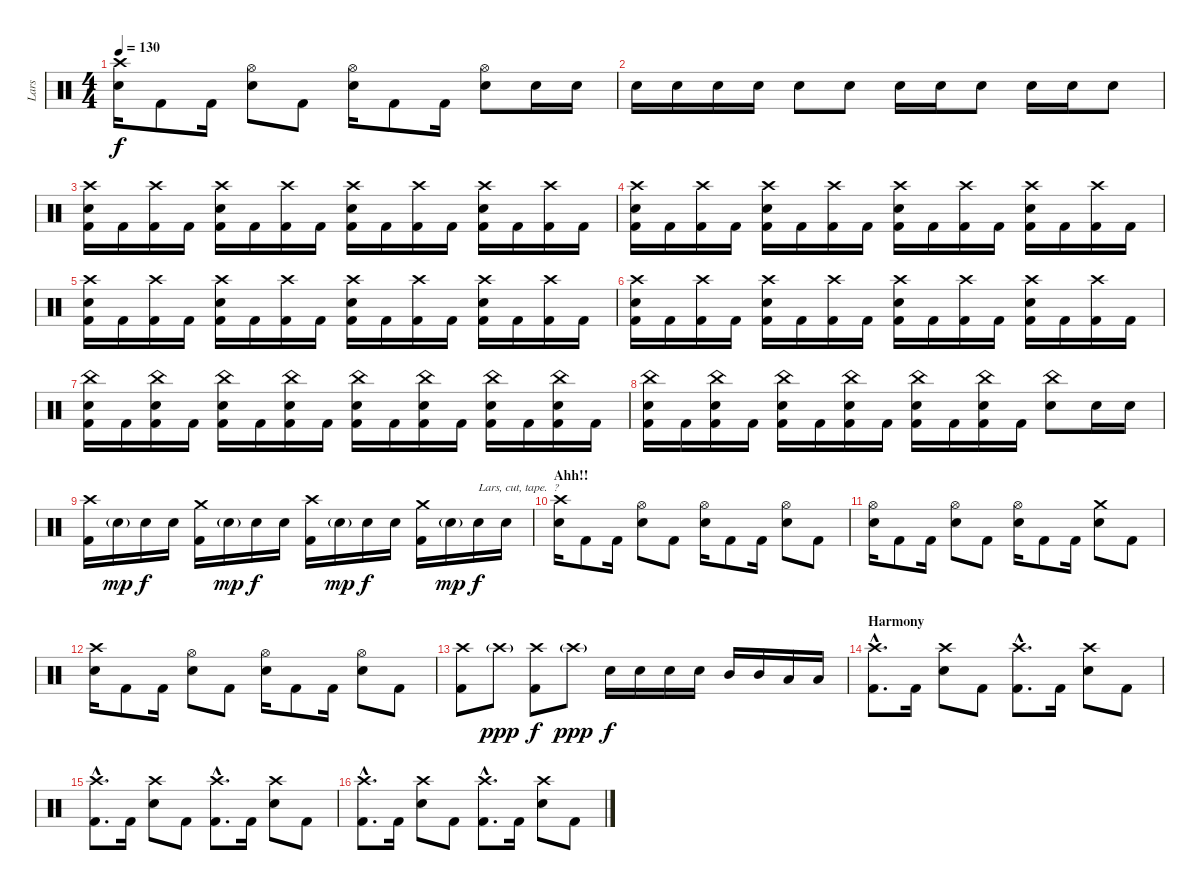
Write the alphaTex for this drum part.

\track ("Lars" "Lars") {instrument percussion}
\staff {score}
\articulation defaults
\ts (4 4)
\tempo 130
\clef neutral
\ks c
("Electric Snare (hit)" "Crash high (hit)").16{dy f} "Kick (hit) 2".8 "Kick (hit) 2".16 ("Electric Snare (hit)" "Hi-Hat (open)").8 "Kick (hit) 2".8 ("Electric Snare (hit)" "Hi-Hat (open)").16 "Kick (hit) 2".8 "Kick (hit) 2".16 ("Electric Snare (hit)" "Hi-Hat (open)").8 "Electric Snare (hit)".16 "Electric Snare (hit)".16 |
"Electric Snare (hit)".16 "Electric Snare (hit)".16 "Electric Snare (hit)".16 "Electric Snare (hit)".16 "Electric Snare (hit)".8 "Electric Snare (hit)".8 "Electric Snare (hit)".16 "Electric Snare (hit)".16 "Electric Snare (hit)".8 "Electric Snare (hit)".16 "Electric Snare (hit)".16 "Electric Snare (hit)".8 |
("Kick (hit) 2" "Electric Snare (hit)" "Crash high (hit)").16 "Kick (hit) 2".16 ("Kick (hit) 2" "Crash high (hit)").16 "Kick (hit) 2".16 ("Kick (hit) 2" "Electric Snare (hit)" "Crash high (hit)").16 "Kick (hit) 2".16 ("Kick (hit) 2" "Crash high (hit)").16 "Kick (hit) 2".16 ("Kick (hit) 2" "Electric Snare (hit)" "Crash high (hit)").16 "Kick (hit) 2".16 ("Kick (hit) 2" "Crash high (hit)").16 "Kick (hit) 2".16 ("Kick (hit) 2" "Electric Snare (hit)" "Crash high (hit)").16 "Kick (hit) 2".16 ("Kick (hit) 2" "Crash high (hit)").16 "Kick (hit) 2".16 |
("Kick (hit) 2" "Electric Snare (hit)" "Crash high (hit)").16 "Kick (hit) 2".16 ("Kick (hit) 2" "Crash high (hit)").16 "Kick (hit) 2".16 ("Kick (hit) 2" "Electric Snare (hit)" "Crash high (hit)").16 "Kick (hit) 2".16 ("Kick (hit) 2" "Crash high (hit)").16 "Kick (hit) 2".16 ("Kick (hit) 2" "Electric Snare (hit)" "Crash high (hit)").16 "Kick (hit) 2".16 ("Kick (hit) 2" "Crash high (hit)").16 "Kick (hit) 2".16 ("Kick (hit) 2" "Electric Snare (hit)" "Crash high (hit)").16 "Kick (hit) 2".16 ("Kick (hit) 2" "Crash high (hit)").16 "Kick (hit) 2".16 |
("Kick (hit) 2" "Electric Snare (hit)" "Crash high (hit)").16 "Kick (hit) 2".16 ("Kick (hit) 2" "Crash high (hit)").16 "Kick (hit) 2".16 ("Kick (hit) 2" "Electric Snare (hit)" "Crash high (hit)").16 "Kick (hit) 2".16 ("Kick (hit) 2" "Crash high (hit)").16 "Kick (hit) 2".16 ("Kick (hit) 2" "Electric Snare (hit)" "Crash high (hit)").16 "Kick (hit) 2".16 ("Kick (hit) 2" "Crash high (hit)").16 "Kick (hit) 2".16 ("Kick (hit) 2" "Electric Snare (hit)" "Crash high (hit)").16 "Kick (hit) 2".16 ("Kick (hit) 2" "Crash high (hit)").16 "Kick (hit) 2".16 |
("Kick (hit) 2" "Electric Snare (hit)" "Crash high (hit)").16 "Kick (hit) 2".16 ("Kick (hit) 2" "Crash high (hit)").16 "Kick (hit) 2".16 ("Kick (hit) 2" "Electric Snare (hit)" "Crash high (hit)").16 "Kick (hit) 2".16 ("Kick (hit) 2" "Crash high (hit)").16 "Kick (hit) 2".16 ("Kick (hit) 2" "Electric Snare (hit)" "Crash high (hit)").16 "Kick (hit) 2".16 ("Kick (hit) 2" "Crash high (hit)").16 "Kick (hit) 2".16 ("Kick (hit) 2" "Electric Snare (hit)" "Crash high (hit)").16 "Kick (hit) 2".16 ("Kick (hit) 2" "Crash high (hit)").16 "Kick (hit) 2".16 |
("Kick (hit) 2" "Electric Snare (hit)" "China (hit)").16 "Kick (hit) 2".16 ("Kick (hit) 2" "Electric Snare (hit)" "China (hit)").16 "Kick (hit) 2".16 ("Kick (hit) 2" "Electric Snare (hit)" "China (hit)").16 "Kick (hit) 2".16 ("Kick (hit) 2" "Electric Snare (hit)" "China (hit)").16 "Kick (hit) 2".16 ("Kick (hit) 2" "Electric Snare (hit)" "China (hit)").16 "Kick (hit) 2".16 ("Kick (hit) 2" "Electric Snare (hit)" "China (hit)").16 "Kick (hit) 2".16 ("Kick (hit) 2" "Electric Snare (hit)" "China (hit)").16 "Kick (hit) 2".16 ("Kick (hit) 2" "Electric Snare (hit)" "China (hit)").16 "Kick (hit) 2".16 |
("Kick (hit) 2" "Electric Snare (hit)" "China (hit)").16 "Kick (hit) 2".16 ("Kick (hit) 2" "Electric Snare (hit)" "China (hit)").16 "Kick (hit) 2".16 ("Kick (hit) 2" "Electric Snare (hit)" "China (hit)").16 "Kick (hit) 2".16 ("Kick (hit) 2" "Electric Snare (hit)" "China (hit)").16 "Kick (hit) 2".16 ("Kick (hit) 2" "Electric Snare (hit)" "China (hit)").16 "Kick (hit) 2".16 ("Kick (hit) 2" "Electric Snare (hit)" "China (hit)").16 "Kick (hit) 2".16 ("Electric Snare (hit)" "China (hit)").8 "Electric Snare (hit)".16 "Electric Snare (hit)".16 |
("Kick (hit) 2" "Crash high (hit)").16 "Electric Snare (hit)"{g}.16{dy mp} "Electric Snare (hit)".16{dy f} "Electric Snare (hit)".16 ("Kick (hit) 2" "Crash medium (hit)").16 "Electric Snare (hit)"{g}.16{dy mp} "Electric Snare (hit)".16{dy f} "Electric Snare (hit)".16 ("Kick (hit) 2" "Crash high (hit)").16 "Electric Snare (hit)"{g}.16{dy mp} "Electric Snare (hit)".16{dy f} "Electric Snare (hit)".16 ("Kick (hit) 2" "Crash medium (hit)").16 "Electric Snare (hit)"{g}.16{dy mp} "Electric Snare (hit)".16{txt "Lars, cut, tape.  ?" dy f} "Electric Snare (hit)".16 |
\section ("" "Ahh!!")
("Electric Snare (hit)" "Crash high (hit)").16 "Kick (hit) 2".8 "Kick (hit) 2".16 ("Electric Snare (hit)" "Hi-Hat (open)").8 "Kick (hit) 2".8 ("Electric Snare (hit)" "Hi-Hat (open)").16 "Kick (hit) 2".8 "Kick (hit) 2".16 ("Electric Snare (hit)" "Hi-Hat (open)").8 "Kick (hit) 2".8 |
("Electric Snare (hit)" "Hi-Hat (open)").16 "Kick (hit) 2".8 "Kick (hit) 2".16 ("Electric Snare (hit)" "Hi-Hat (open)").8 "Kick (hit) 2".8 ("Electric Snare (hit)" "Hi-Hat (open)").16 "Kick (hit) 2".8 "Kick (hit) 2".16 ("Electric Snare (hit)" "Crash medium (hit)").8 "Kick (hit) 2".8 |
("Electric Snare (hit)" "Crash high (hit)").16 "Kick (hit) 2".8 "Kick (hit) 2".16 ("Electric Snare (hit)" "Hi-Hat (open)").8 "Kick (hit) 2".8 ("Electric Snare (hit)" "Hi-Hat (open)").16 "Kick (hit) 2".8 "Kick (hit) 2".16 ("Electric Snare (hit)" "Hi-Hat (open)").8 "Kick (hit) 2".8 |
("Kick (hit) 2" "Crash high (hit)").8 "Crash high (hit)"{g}.8{dy ppp} ("Kick (hit) 2" "Crash high (hit)").8{dy f} "Crash high (hit)"{g}.8{dy ppp} "Electric Snare (hit)".16{dy f} "Electric Snare (hit)".16 "Electric Snare (hit)".16 "Electric Snare (hit)".16 "Mid Tom (hit)".16 "Mid Tom (hit)".16 "Low Tom (hit)".16 "Low Tom (hit)".16 |
\section ("" "Harmony")
("Kick (hit) 2"{hac} "Crash high (hit)"{hac}).8{d} "Kick (hit) 2".16 ("Electric Snare (hit)" "Crash high (hit)").8 "Kick (hit) 2".8 ("Kick (hit) 2"{hac} "Crash high (hit)"{hac}).8{d} "Kick (hit) 2".16 ("Electric Snare (hit)" "Crash high (hit)").8 "Kick (hit) 2".8 |
("Kick (hit) 2"{hac} "Crash high (hit)"{hac}).8{d} "Kick (hit) 2".16 ("Electric Snare (hit)" "Crash high (hit)").8 "Kick (hit) 2".8 ("Kick (hit) 2"{hac} "Crash high (hit)"{hac}).8{d} "Kick (hit) 2".16 ("Electric Snare (hit)" "Crash high (hit)").8 "Kick (hit) 2".8 |
("Kick (hit) 2"{hac} "Crash high (hit)"{hac}).8{d} "Kick (hit) 2".16 ("Electric Snare (hit)" "Crash high (hit)").8 "Kick (hit) 2".8 ("Kick (hit) 2"{hac} "Crash high (hit)"{hac}).8{d} "Kick (hit) 2".16 ("Electric Snare (hit)" "Crash high (hit)").8 "Kick (hit) 2".8
